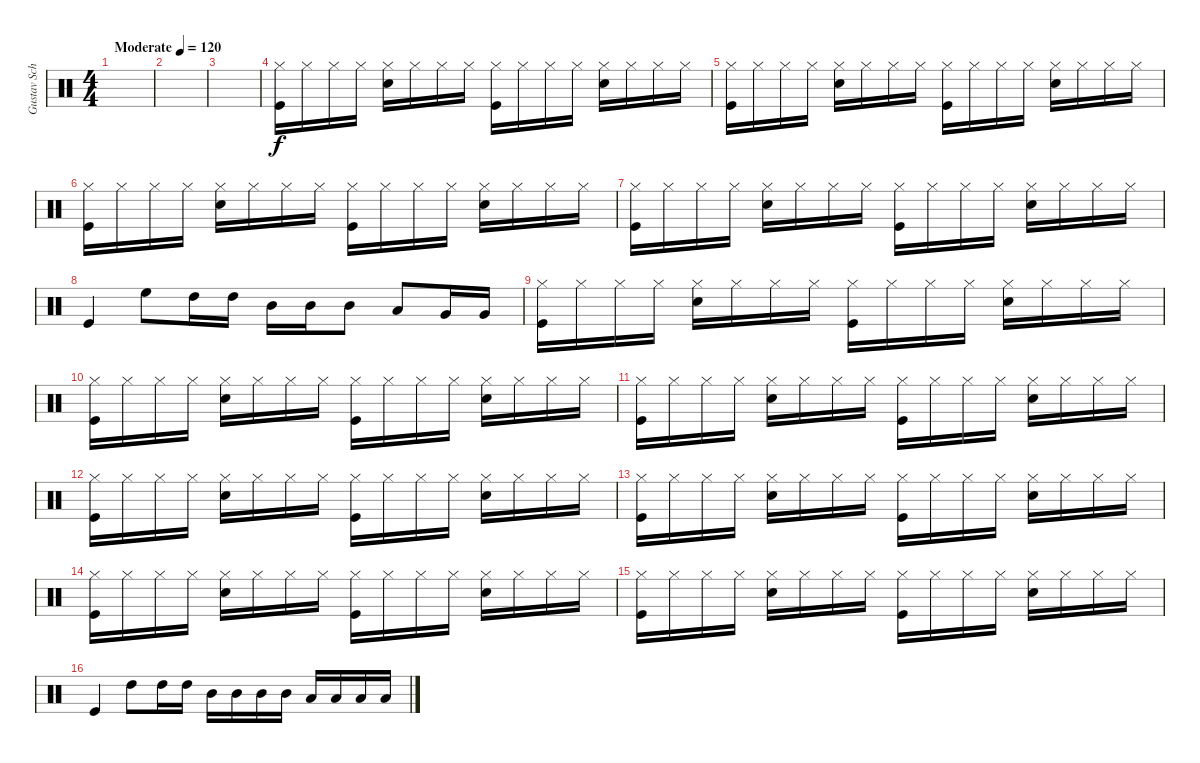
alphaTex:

\track ("Gustav Schäfer" "Gustav Sch") {instrument percussion}
\staff {score}
\articulation defaults
\ts (4 4)
\tempo (120 "Moderate")
\clef neutral
\ks c
|
|
|
("Hi-Hat (closed)" "Kick (hit)").16 "Hi-Hat (closed)".16 "Hi-Hat (closed)".16 "Hi-Hat (closed)".16 ("Hi-Hat (closed)" "Snare (hit) 2").16 "Hi-Hat (closed)".16 "Hi-Hat (closed)".16 "Hi-Hat (closed)".16 ("Hi-Hat (closed)" "Kick (hit)").16 "Hi-Hat (closed)".16 "Hi-Hat (closed)".16 "Hi-Hat (closed)".16 ("Hi-Hat (closed)" "Snare (hit) 2").16 "Hi-Hat (closed)".16 "Hi-Hat (closed)".16 "Hi-Hat (closed)".16 |
("Hi-Hat (closed)" "Kick (hit)").16 "Hi-Hat (closed)".16 "Hi-Hat (closed)".16 "Hi-Hat (closed)".16 ("Hi-Hat (closed)" "Snare (hit) 2").16 "Hi-Hat (closed)".16 "Hi-Hat (closed)".16 "Hi-Hat (closed)".16 ("Hi-Hat (closed)" "Kick (hit)").16 "Hi-Hat (closed)".16 "Hi-Hat (closed)".16 "Hi-Hat (closed)".16 ("Hi-Hat (closed)" "Snare (hit) 2").16 "Hi-Hat (closed)".16 "Hi-Hat (closed)".16 "Hi-Hat (closed)".16 |
("Hi-Hat (closed)" "Kick (hit)").16 "Hi-Hat (closed)".16 "Hi-Hat (closed)".16 "Hi-Hat (closed)".16 ("Hi-Hat (closed)" "Snare (hit) 2").16 "Hi-Hat (closed)".16 "Hi-Hat (closed)".16 "Hi-Hat (closed)".16 ("Hi-Hat (closed)" "Kick (hit)").16 "Hi-Hat (closed)".16 "Hi-Hat (closed)".16 "Hi-Hat (closed)".16 ("Hi-Hat (closed)" "Snare (hit) 2").16 "Hi-Hat (closed)".16 "Hi-Hat (closed)".16 "Hi-Hat (closed)".16 |
("Hi-Hat (closed)" "Kick (hit)").16 "Hi-Hat (closed)".16 "Hi-Hat (closed)".16 "Hi-Hat (closed)".16 ("Hi-Hat (closed)" "Snare (hit) 2").16 "Hi-Hat (closed)".16 "Hi-Hat (closed)".16 "Hi-Hat (closed)".16 ("Hi-Hat (closed)" "Kick (hit)").16 "Hi-Hat (closed)".16 "Hi-Hat (closed)".16 "Hi-Hat (closed)".16 ("Hi-Hat (closed)" "Snare (hit) 2").16 "Hi-Hat (closed)".16 "Hi-Hat (closed)".16 "Hi-Hat (closed)".16 |
"Kick (hit)".4 "High Floor Tom (hit)".8 "High Tom (hit)".16 "High Tom (hit)".16 "Mid Tom (hit)".16 "Mid Tom (hit)".16 "Mid Tom (hit)".8 "Low Tom (hit)".8 "Very Low Tom (hit)".16 "Very Low Tom (hit)".16 |
("Hi-Hat (closed)" "Kick (hit)").16 "Hi-Hat (closed)".16 "Hi-Hat (closed)".16 "Hi-Hat (closed)".16 ("Hi-Hat (closed)" "Snare (hit) 2").16 "Hi-Hat (closed)".16 "Hi-Hat (closed)".16 "Hi-Hat (closed)".16 ("Hi-Hat (closed)" "Kick (hit)").16 "Hi-Hat (closed)".16 "Hi-Hat (closed)".16 "Hi-Hat (closed)".16 ("Hi-Hat (closed)" "Snare (hit) 2").16 "Hi-Hat (closed)".16 "Hi-Hat (closed)".16 "Hi-Hat (closed)".16 |
("Hi-Hat (closed)" "Kick (hit)").16 "Hi-Hat (closed)".16 "Hi-Hat (closed)".16 "Hi-Hat (closed)".16 ("Hi-Hat (closed)" "Snare (hit) 2").16 "Hi-Hat (closed)".16 "Hi-Hat (closed)".16 "Hi-Hat (closed)".16 ("Hi-Hat (closed)" "Kick (hit)").16 "Hi-Hat (closed)".16 "Hi-Hat (closed)".16 "Hi-Hat (closed)".16 ("Hi-Hat (closed)" "Snare (hit) 2").16 "Hi-Hat (closed)".16 "Hi-Hat (closed)".16 "Hi-Hat (closed)".16 |
("Hi-Hat (closed)" "Kick (hit)").16 "Hi-Hat (closed)".16 "Hi-Hat (closed)".16 "Hi-Hat (closed)".16 ("Hi-Hat (closed)" "Snare (hit) 2").16 "Hi-Hat (closed)".16 "Hi-Hat (closed)".16 "Hi-Hat (closed)".16 ("Hi-Hat (closed)" "Kick (hit)").16 "Hi-Hat (closed)".16 "Hi-Hat (closed)".16 "Hi-Hat (closed)".16 ("Hi-Hat (closed)" "Snare (hit) 2").16 "Hi-Hat (closed)".16 "Hi-Hat (closed)".16 "Hi-Hat (closed)".16 |
("Hi-Hat (closed)" "Kick (hit)").16 "Hi-Hat (closed)".16 "Hi-Hat (closed)".16 "Hi-Hat (closed)".16 ("Hi-Hat (closed)" "Snare (hit) 2").16 "Hi-Hat (closed)".16 "Hi-Hat (closed)".16 "Hi-Hat (closed)".16 ("Hi-Hat (closed)" "Kick (hit)").16 "Hi-Hat (closed)".16 "Hi-Hat (closed)".16 "Hi-Hat (closed)".16 ("Hi-Hat (closed)" "Snare (hit) 2").16 "Hi-Hat (closed)".16 "Hi-Hat (closed)".16 "Hi-Hat (closed)".16 |
("Hi-Hat (closed)" "Kick (hit)").16 "Hi-Hat (closed)".16 "Hi-Hat (closed)".16 "Hi-Hat (closed)".16 ("Hi-Hat (closed)" "Snare (hit) 2").16 "Hi-Hat (closed)".16 "Hi-Hat (closed)".16 "Hi-Hat (closed)".16 ("Hi-Hat (closed)" "Kick (hit)").16 "Hi-Hat (closed)".16 "Hi-Hat (closed)".16 "Hi-Hat (closed)".16 ("Hi-Hat (closed)" "Snare (hit) 2").16 "Hi-Hat (closed)".16 "Hi-Hat (closed)".16 "Hi-Hat (closed)".16 |
("Hi-Hat (closed)" "Kick (hit)").16 "Hi-Hat (closed)".16 "Hi-Hat (closed)".16 "Hi-Hat (closed)".16 ("Hi-Hat (closed)" "Snare (hit) 2").16 "Hi-Hat (closed)".16 "Hi-Hat (closed)".16 "Hi-Hat (closed)".16 ("Hi-Hat (closed)" "Kick (hit)").16 "Hi-Hat (closed)".16 "Hi-Hat (closed)".16 "Hi-Hat (closed)".16 ("Hi-Hat (closed)" "Snare (hit) 2").16 "Hi-Hat (closed)".16 "Hi-Hat (closed)".16 "Hi-Hat (closed)".16 |
("Hi-Hat (closed)" "Kick (hit)").16 "Hi-Hat (closed)".16 "Hi-Hat (closed)".16 "Hi-Hat (closed)".16 ("Hi-Hat (closed)" "Snare (hit) 2").16 "Hi-Hat (closed)".16 "Hi-Hat (closed)".16 "Hi-Hat (closed)".16 ("Hi-Hat (closed)" "Kick (hit)").16 "Hi-Hat (closed)".16 "Hi-Hat (closed)".16 "Hi-Hat (closed)".16 ("Hi-Hat (closed)" "Snare (hit) 2").16 "Hi-Hat (closed)".16 "Hi-Hat (closed)".16 "Hi-Hat (closed)".16 |
"Kick (hit)".4 "High Tom (hit)".8 "High Tom (hit)".16 "High Tom (hit)".16 "Mid Tom (hit)".16 "Mid Tom (hit)".16 "Mid Tom (hit)".16 "Mid Tom (hit)".16 "Low Tom (hit)".16 "Low Tom (hit)".16 "Low Tom (hit)".16 "Low Tom (hit)".16
